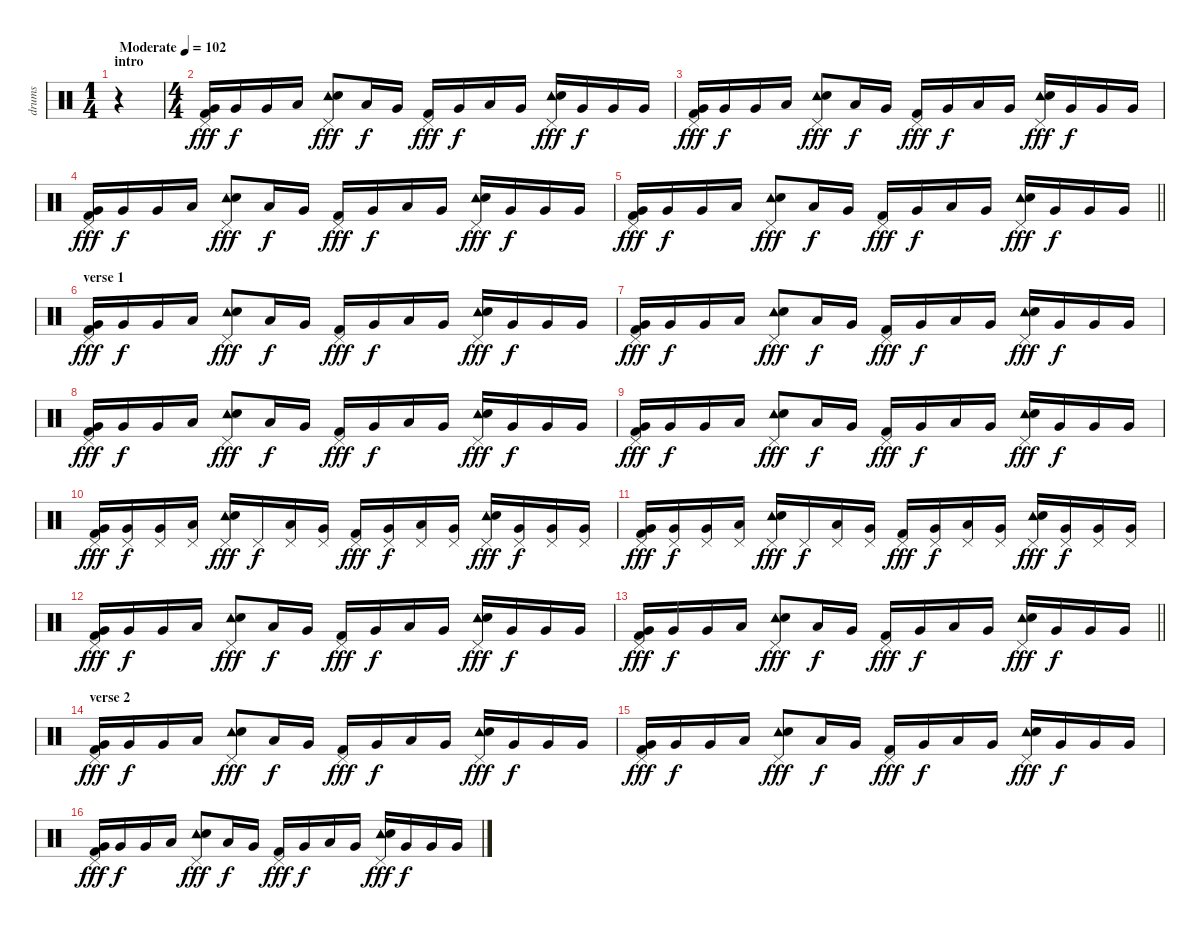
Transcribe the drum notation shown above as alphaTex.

\track ("drums" "drums") {instrument percussion}
\staff {score}
\articulation defaults
\ts (1 4)
\section ("" "intro")
\tempo (102 "Moderate")
\clef neutral
\ks c
r.4{dy fff} |
\ts (4 4)
("Pedal Hi-Hat (hit)" "Very Low Tom (hit)" "Kick (hit) 2").16 "Very Low Tom (hit)".16{dy f} "Very Low Tom (hit)".16 "Low Tom (hit)".16 ("Tambourine (hit)" "Pedal Hi-Hat (hit)" "Electric Snare (hit)").8{dy fff} "Low Tom (hit)".16{dy f} "Very Low Tom (hit)".16 ("Pedal Hi-Hat (hit)" "Kick (hit) 2").16{dy fff} "Very Low Tom (hit)".16{dy f} "Low Tom (hit)".16 "Very Low Tom (hit)".16 ("Tambourine (hit)" "Pedal Hi-Hat (hit)" "Electric Snare (hit)").16{dy fff} "Very Low Tom (hit)".16{dy f} "Very Low Tom (hit)".16 "Very Low Tom (hit)".16 |
("Pedal Hi-Hat (hit)" "Very Low Tom (hit)" "Kick (hit) 2").16{dy fff} "Very Low Tom (hit)".16{dy f} "Very Low Tom (hit)".16 "Low Tom (hit)".16 ("Tambourine (hit)" "Pedal Hi-Hat (hit)" "Electric Snare (hit)").8{dy fff} "Low Tom (hit)".16{dy f} "Very Low Tom (hit)".16 ("Pedal Hi-Hat (hit)" "Kick (hit) 2").16{dy fff} "Very Low Tom (hit)".16{dy f} "Low Tom (hit)".16 "Very Low Tom (hit)".16 ("Tambourine (hit)" "Pedal Hi-Hat (hit)" "Electric Snare (hit)").16{dy fff} "Very Low Tom (hit)".16{dy f} "Very Low Tom (hit)".16 "Very Low Tom (hit)".16 |
("Pedal Hi-Hat (hit)" "Very Low Tom (hit)" "Kick (hit) 2").16{dy fff} "Very Low Tom (hit)".16{dy f} "Very Low Tom (hit)".16 "Low Tom (hit)".16 ("Tambourine (hit)" "Pedal Hi-Hat (hit)" "Electric Snare (hit)").8{dy fff} "Low Tom (hit)".16{dy f} "Very Low Tom (hit)".16 ("Pedal Hi-Hat (hit)" "Kick (hit) 2").16{dy fff} "Very Low Tom (hit)".16{dy f} "Low Tom (hit)".16 "Very Low Tom (hit)".16 ("Tambourine (hit)" "Pedal Hi-Hat (hit)" "Electric Snare (hit)").16{dy fff} "Very Low Tom (hit)".16{dy f} "Very Low Tom (hit)".16 "Very Low Tom (hit)".16 |
\barLineRight lightlight
("Pedal Hi-Hat (hit)" "Very Low Tom (hit)" "Kick (hit) 2").16{dy fff} "Very Low Tom (hit)".16{dy f} "Very Low Tom (hit)".16 "Low Tom (hit)".16 ("Tambourine (hit)" "Pedal Hi-Hat (hit)" "Electric Snare (hit)").8{dy fff} "Low Tom (hit)".16{dy f} "Very Low Tom (hit)".16 ("Pedal Hi-Hat (hit)" "Kick (hit) 2").16{dy fff} "Very Low Tom (hit)".16{dy f} "Low Tom (hit)".16 "Very Low Tom (hit)".16 ("Tambourine (hit)" "Pedal Hi-Hat (hit)" "Electric Snare (hit)").16{dy fff} "Very Low Tom (hit)".16{dy f} "Very Low Tom (hit)".16 "Very Low Tom (hit)".16 |
\section ("" "verse 1")
("Pedal Hi-Hat (hit)" "Very Low Tom (hit)" "Kick (hit) 2").16{dy fff} "Very Low Tom (hit)".16{dy f} "Very Low Tom (hit)".16 "Low Tom (hit)".16 ("Tambourine (hit)" "Pedal Hi-Hat (hit)" "Electric Snare (hit)").8{dy fff} "Low Tom (hit)".16{dy f} "Very Low Tom (hit)".16 ("Pedal Hi-Hat (hit)" "Kick (hit) 2").16{dy fff} "Very Low Tom (hit)".16{dy f} "Low Tom (hit)".16 "Very Low Tom (hit)".16 ("Tambourine (hit)" "Pedal Hi-Hat (hit)" "Electric Snare (hit)").16{dy fff} "Very Low Tom (hit)".16{dy f} "Very Low Tom (hit)".16 "Very Low Tom (hit)".16 |
("Pedal Hi-Hat (hit)" "Very Low Tom (hit)" "Kick (hit) 2").16{dy fff} "Very Low Tom (hit)".16{dy f} "Very Low Tom (hit)".16 "Low Tom (hit)".16 ("Tambourine (hit)" "Pedal Hi-Hat (hit)" "Electric Snare (hit)").8{dy fff} "Low Tom (hit)".16{dy f} "Very Low Tom (hit)".16 ("Pedal Hi-Hat (hit)" "Kick (hit) 2").16{dy fff} "Very Low Tom (hit)".16{dy f} "Low Tom (hit)".16 "Very Low Tom (hit)".16 ("Tambourine (hit)" "Pedal Hi-Hat (hit)" "Electric Snare (hit)").16{dy fff} "Very Low Tom (hit)".16{dy f} "Very Low Tom (hit)".16 "Very Low Tom (hit)".16 |
("Pedal Hi-Hat (hit)" "Very Low Tom (hit)" "Kick (hit) 2").16{dy fff} "Very Low Tom (hit)".16{dy f} "Very Low Tom (hit)".16 "Low Tom (hit)".16 ("Tambourine (hit)" "Pedal Hi-Hat (hit)" "Electric Snare (hit)").8{dy fff} "Low Tom (hit)".16{dy f} "Very Low Tom (hit)".16 ("Pedal Hi-Hat (hit)" "Kick (hit) 2").16{dy fff} "Very Low Tom (hit)".16{dy f} "Low Tom (hit)".16 "Very Low Tom (hit)".16 ("Tambourine (hit)" "Pedal Hi-Hat (hit)" "Electric Snare (hit)").16{dy fff} "Very Low Tom (hit)".16{dy f} "Very Low Tom (hit)".16 "Very Low Tom (hit)".16 |
("Pedal Hi-Hat (hit)" "Very Low Tom (hit)" "Kick (hit) 2").16{dy fff} "Very Low Tom (hit)".16{dy f} "Very Low Tom (hit)".16 "Low Tom (hit)".16 ("Tambourine (hit)" "Pedal Hi-Hat (hit)" "Electric Snare (hit)").8{dy fff} "Low Tom (hit)".16{dy f} "Very Low Tom (hit)".16 ("Pedal Hi-Hat (hit)" "Kick (hit) 2").16{dy fff} "Very Low Tom (hit)".16{dy f} "Low Tom (hit)".16 "Very Low Tom (hit)".16 ("Tambourine (hit)" "Pedal Hi-Hat (hit)" "Electric Snare (hit)").16{dy fff} "Very Low Tom (hit)".16{dy f} "Very Low Tom (hit)".16 "Very Low Tom (hit)".16 |
("Pedal Hi-Hat (hit)" "Very Low Tom (hit)" "Kick (hit) 2").16{dy fff} ("Pedal Hi-Hat (hit)" "Very Low Tom (hit)").16{dy f} ("Pedal Hi-Hat (hit)" "Very Low Tom (hit)").16 ("Pedal Hi-Hat (hit)" "Low Tom (hit)").16 ("Tambourine (hit)" "Pedal Hi-Hat (hit)" "Electric Snare (hit)").16{dy fff} "Pedal Hi-Hat (hit)".16{dy f} ("Pedal Hi-Hat (hit)" "Low Tom (hit)").16 ("Pedal Hi-Hat (hit)" "Very Low Tom (hit)").16 ("Pedal Hi-Hat (hit)" "Kick (hit) 2").16{dy fff} ("Pedal Hi-Hat (hit)" "Very Low Tom (hit)").16{dy f} ("Pedal Hi-Hat (hit)" "Low Tom (hit)").16 ("Pedal Hi-Hat (hit)" "Very Low Tom (hit)").16 ("Tambourine (hit)" "Pedal Hi-Hat (hit)" "Electric Snare (hit)").16{dy fff} ("Pedal Hi-Hat (hit)" "Very Low Tom (hit)").16{dy f} ("Pedal Hi-Hat (hit)" "Very Low Tom (hit)").16 ("Pedal Hi-Hat (hit)" "Very Low Tom (hit)").16 |
("Pedal Hi-Hat (hit)" "Very Low Tom (hit)" "Kick (hit) 2").16{dy fff} ("Pedal Hi-Hat (hit)" "Very Low Tom (hit)").16{dy f} ("Pedal Hi-Hat (hit)" "Very Low Tom (hit)").16 ("Pedal Hi-Hat (hit)" "Low Tom (hit)").16 ("Tambourine (hit)" "Pedal Hi-Hat (hit)" "Electric Snare (hit)").16{dy fff} "Pedal Hi-Hat (hit)".16{dy f} ("Pedal Hi-Hat (hit)" "Low Tom (hit)").16 ("Pedal Hi-Hat (hit)" "Very Low Tom (hit)").16 ("Pedal Hi-Hat (hit)" "Kick (hit) 2").16{dy fff} ("Pedal Hi-Hat (hit)" "Very Low Tom (hit)").16{dy f} ("Pedal Hi-Hat (hit)" "Low Tom (hit)").16 ("Pedal Hi-Hat (hit)" "Very Low Tom (hit)").16 ("Tambourine (hit)" "Pedal Hi-Hat (hit)" "Electric Snare (hit)").16{dy fff} ("Pedal Hi-Hat (hit)" "Very Low Tom (hit)").16{dy f} ("Pedal Hi-Hat (hit)" "Very Low Tom (hit)").16 ("Pedal Hi-Hat (hit)" "Very Low Tom (hit)").16 |
("Pedal Hi-Hat (hit)" "Very Low Tom (hit)" "Kick (hit) 2").16{dy fff} "Very Low Tom (hit)".16{dy f} "Very Low Tom (hit)".16 "Low Tom (hit)".16 ("Tambourine (hit)" "Pedal Hi-Hat (hit)" "Electric Snare (hit)").8{dy fff} "Low Tom (hit)".16{dy f} "Very Low Tom (hit)".16 ("Pedal Hi-Hat (hit)" "Kick (hit) 2").16{dy fff} "Very Low Tom (hit)".16{dy f} "Low Tom (hit)".16 "Very Low Tom (hit)".16 ("Tambourine (hit)" "Pedal Hi-Hat (hit)" "Electric Snare (hit)").16{dy fff} "Very Low Tom (hit)".16{dy f} "Very Low Tom (hit)".16 "Very Low Tom (hit)".16 |
\barLineRight lightlight
("Pedal Hi-Hat (hit)" "Very Low Tom (hit)" "Kick (hit) 2").16{dy fff} "Very Low Tom (hit)".16{dy f} "Very Low Tom (hit)".16 "Low Tom (hit)".16 ("Tambourine (hit)" "Pedal Hi-Hat (hit)" "Electric Snare (hit)").8{dy fff} "Low Tom (hit)".16{dy f} "Very Low Tom (hit)".16 ("Pedal Hi-Hat (hit)" "Kick (hit) 2").16{dy fff} "Very Low Tom (hit)".16{dy f} "Low Tom (hit)".16 "Very Low Tom (hit)".16 ("Tambourine (hit)" "Pedal Hi-Hat (hit)" "Electric Snare (hit)").16{dy fff} "Very Low Tom (hit)".16{dy f} "Very Low Tom (hit)".16 "Very Low Tom (hit)".16 |
\section ("" "verse 2")
("Pedal Hi-Hat (hit)" "Very Low Tom (hit)" "Kick (hit) 2").16{dy fff} "Very Low Tom (hit)".16{dy f} "Very Low Tom (hit)".16 "Low Tom (hit)".16 ("Tambourine (hit)" "Pedal Hi-Hat (hit)" "Electric Snare (hit)").8{dy fff} "Low Tom (hit)".16{dy f} "Very Low Tom (hit)".16 ("Pedal Hi-Hat (hit)" "Kick (hit) 2").16{dy fff} "Very Low Tom (hit)".16{dy f} "Low Tom (hit)".16 "Very Low Tom (hit)".16 ("Tambourine (hit)" "Pedal Hi-Hat (hit)" "Electric Snare (hit)").16{dy fff} "Very Low Tom (hit)".16{dy f} "Very Low Tom (hit)".16 "Very Low Tom (hit)".16 |
("Pedal Hi-Hat (hit)" "Very Low Tom (hit)" "Kick (hit) 2").16{dy fff} "Very Low Tom (hit)".16{dy f} "Very Low Tom (hit)".16 "Low Tom (hit)".16 ("Tambourine (hit)" "Pedal Hi-Hat (hit)" "Electric Snare (hit)").8{dy fff} "Low Tom (hit)".16{dy f} "Very Low Tom (hit)".16 ("Pedal Hi-Hat (hit)" "Kick (hit) 2").16{dy fff} "Very Low Tom (hit)".16{dy f} "Low Tom (hit)".16 "Very Low Tom (hit)".16 ("Tambourine (hit)" "Pedal Hi-Hat (hit)" "Electric Snare (hit)").16{dy fff} "Very Low Tom (hit)".16{dy f} "Very Low Tom (hit)".16 "Very Low Tom (hit)".16 |
("Pedal Hi-Hat (hit)" "Very Low Tom (hit)" "Kick (hit) 2").16{dy fff} "Very Low Tom (hit)".16{dy f} "Very Low Tom (hit)".16 "Low Tom (hit)".16 ("Tambourine (hit)" "Pedal Hi-Hat (hit)" "Electric Snare (hit)").8{dy fff} "Low Tom (hit)".16{dy f} "Very Low Tom (hit)".16 ("Pedal Hi-Hat (hit)" "Kick (hit) 2").16{dy fff} "Very Low Tom (hit)".16{dy f} "Low Tom (hit)".16 "Very Low Tom (hit)".16 ("Tambourine (hit)" "Pedal Hi-Hat (hit)" "Electric Snare (hit)").16{dy fff} "Very Low Tom (hit)".16{dy f} "Very Low Tom (hit)".16 "Very Low Tom (hit)".16
